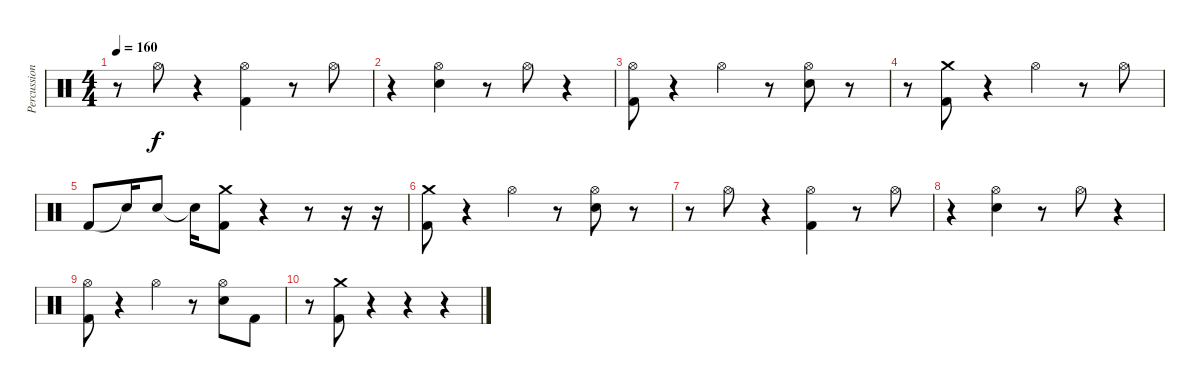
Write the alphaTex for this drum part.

\track ("Percussion" "Percussion") {instrument percussion}
\staff {score}
\articulation defaults
\ts (4 4)
\tempo 160
\clef neutral
\ks c
r.8{dy f} "Hi-Hat (open)".8 r.4 ("Hi-Hat (open)" "Kick (hit) 2").4 r.8 "Hi-Hat (open)".8 |
r.4 ("Hi-Hat (open)" "Electric Snare (hit)").4 r.8 "Hi-Hat (open)".8 r.4 |
("Hi-Hat (open)" "Kick (hit) 2").8 r.4 "Hi-Hat (open)".4 r.8 ("Hi-Hat (open)" "Electric Snare (hit)").8 r.8 |
r.8 ("Crash medium (hit)" "Kick (hit) 2").8 r.4 "Hi-Hat (open)".4 r.8 "Hi-Hat (open)".8 |
"Kick (hit) 2".8 "Snare (hit)"{t}.16 "Electric Snare (hit)".8 "Snare (hit)"{t}.16 ("Crash medium (hit)" "Kick (hit) 2").8 r.4 r.8 r.16 r.16 |
("Crash medium (hit)" "Kick (hit) 2").8 r.4 "Hi-Hat (open)".4 r.8 ("Hi-Hat (open)" "Electric Snare (hit)").8 r.8 |
r.8 "Hi-Hat (open)".8 r.4 ("Hi-Hat (open)" "Kick (hit) 2").4 r.8 "Hi-Hat (open)".8 |
r.4 ("Hi-Hat (open)" "Electric Snare (hit)").4 r.8 "Hi-Hat (open)".8 r.4 |
("Hi-Hat (open)" "Kick (hit) 2").8 r.4 "Hi-Hat (open)".4 r.8 ("Hi-Hat (open)" "Electric Snare (hit)").8 "Kick (hit) 2".8 |
r.8 ("Crash medium (hit)" "Kick (hit) 2").8 r.4 r.4 r.4
